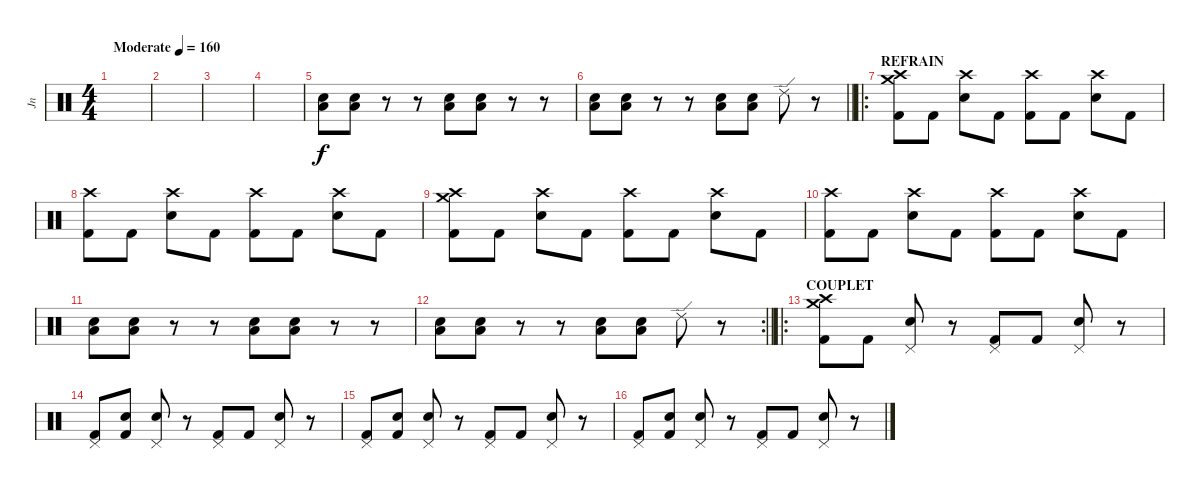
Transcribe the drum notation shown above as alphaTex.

\track ("Jn" "Jn") {instrument percussion}
\staff {score}
\articulation defaults
\ts (4 4)
\tempo (160 "Moderate")
\clef neutral
\ks c
|
|
|
|
("Electric Snare (hit)" "Low Tom (hit)").8 ("Electric Snare (hit)" "Low Tom (hit)").8 r.8 r.8 ("Electric Snare (hit)" "Low Tom (hit)").8 ("Electric Snare (hit)" "Low Tom (hit)").8 r.8 r.8 |
\barLineRight lightlight
("Electric Snare (hit)" "Low Tom (hit)").8 ("Electric Snare (hit)" "Low Tom (hit)").8 r.8 r.8 ("Electric Snare (hit)" "Low Tom (hit)").8 ("Electric Snare (hit)" "Low Tom (hit)").8 "Ride (edge) 2".8 r.8 |
\ro
\section ("" "REFRAIN")
("Crash medium (hit)" "Crash high (hit)" "Kick (hit) 2").8 "Kick (hit) 2".8 ("Crash high (hit)" "Electric Snare (hit)").8 "Kick (hit) 2".8 ("Crash high (hit)" "Kick (hit) 2").8 "Kick (hit) 2".8 ("Crash high (hit)" "Electric Snare (hit)").8 "Kick (hit) 2".8 |
("Crash high (hit)" "Kick (hit) 2").8 "Kick (hit) 2".8 ("Crash high (hit)" "Electric Snare (hit)").8 "Kick (hit) 2".8 ("Crash high (hit)" "Kick (hit) 2").8 "Kick (hit) 2".8 ("Crash high (hit)" "Electric Snare (hit)").8 "Kick (hit) 2".8 |
("Crash medium (hit)" "Crash high (hit)" "Kick (hit) 2").8 "Kick (hit) 2".8 ("Crash high (hit)" "Electric Snare (hit)").8 "Kick (hit) 2".8 ("Crash high (hit)" "Kick (hit) 2").8 "Kick (hit) 2".8 ("Crash high (hit)" "Electric Snare (hit)").8 "Kick (hit) 2".8 |
("Crash high (hit)" "Kick (hit) 2").8 "Kick (hit) 2".8 ("Crash high (hit)" "Electric Snare (hit)").8 "Kick (hit) 2".8 ("Crash high (hit)" "Kick (hit) 2").8 "Kick (hit) 2".8 ("Crash high (hit)" "Electric Snare (hit)").8 "Kick (hit) 2".8 |
("Electric Snare (hit)" "Low Tom (hit)").8 ("Electric Snare (hit)" "Low Tom (hit)").8 r.8 r.8 ("Electric Snare (hit)" "Low Tom (hit)").8 ("Electric Snare (hit)" "Low Tom (hit)").8 r.8 r.8 |
\rc 2
\barLineRight lightlight
("Electric Snare (hit)" "Low Tom (hit)").8 ("Electric Snare (hit)" "Low Tom (hit)").8 r.8 r.8 ("Electric Snare (hit)" "Low Tom (hit)").8 ("Electric Snare (hit)" "Low Tom (hit)").8 "Ride (edge) 2".8 r.8 |
\ro
\section ("" "COUPLET")
("Crash medium (hit)" "Crash high (hit)" "Kick (hit) 2").8 "Kick (hit) 2".8 ("Pedal Hi-Hat (hit)" "Electric Snare (hit)").8 r.8 ("Pedal Hi-Hat (hit)" "Kick (hit) 2").8 "Kick (hit) 2".8 ("Pedal Hi-Hat (hit)" "Electric Snare (hit)").8 r.8 |
("Pedal Hi-Hat (hit)" "Kick (hit) 2").8 ("Snare (hit)" "Kick (hit) 2").8 ("Pedal Hi-Hat (hit)" "Electric Snare (hit)").8 r.8 ("Pedal Hi-Hat (hit)" "Kick (hit) 2").8 "Kick (hit) 2".8 ("Pedal Hi-Hat (hit)" "Electric Snare (hit)").8 r.8 |
("Pedal Hi-Hat (hit)" "Kick (hit) 2").8 ("Snare (hit)" "Kick (hit) 2").8 ("Pedal Hi-Hat (hit)" "Electric Snare (hit)").8 r.8 ("Pedal Hi-Hat (hit)" "Kick (hit) 2").8 "Kick (hit) 2".8 ("Pedal Hi-Hat (hit)" "Electric Snare (hit)").8 r.8 |
("Pedal Hi-Hat (hit)" "Kick (hit) 2").8 ("Snare (hit)" "Kick (hit) 2").8 ("Pedal Hi-Hat (hit)" "Electric Snare (hit)").8 r.8 ("Pedal Hi-Hat (hit)" "Kick (hit) 2").8 "Kick (hit) 2".8 ("Pedal Hi-Hat (hit)" "Electric Snare (hit)").8 r.8
